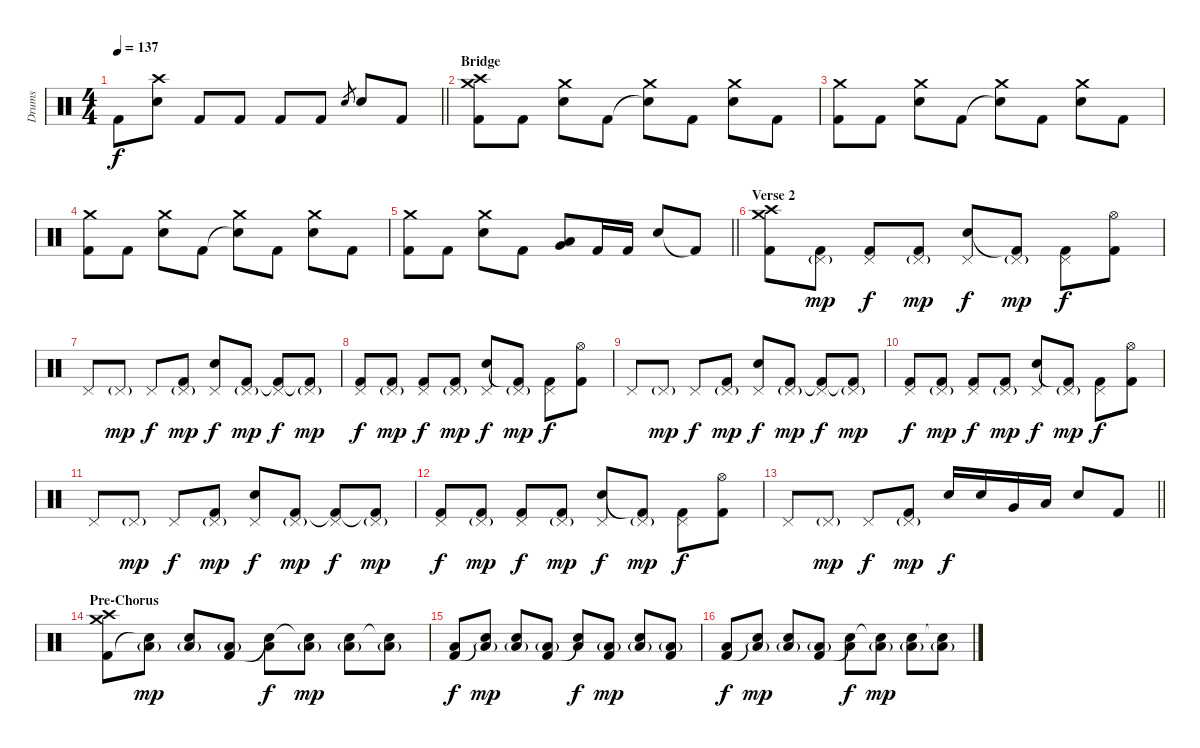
\track ("Drums" "Drums") {instrument percussion}
\staff {score}
\articulation defaults
\ts (4 4)
\tempo 137
\clef neutral
\barLineRight lightlight
\ks c "Kick (hit) 2".8{dy f}
("Electric Snare (hit)" "Crash high (hit)").8 "Kick (hit) 2".8 "Kick (hit) 2".8 "Kick (hit) 2".8 "Kick (hit) 2".8 "Electric Snare (hit)".8{gr} "Electric Snare (hit)".8 "Kick (hit) 2".8 |
\section ("" "Bridge")
("Kick (hit) 2" "Crash medium (hit)" "Crash high (hit)").8 "Kick (hit) 2".8 ("Electric Snare (hit)" "Crash medium (hit)").8 "Kick (hit) 2".8 ("Snare (hit)"{t} "Crash medium (hit)").8 "Kick (hit) 2".8 ("Electric Snare (hit)" "Crash medium (hit)").8 "Kick (hit) 2".8 |
("Kick (hit) 2" "Crash medium (hit)").8 "Kick (hit) 2".8 ("Electric Snare (hit)" "Crash medium (hit)").8 "Kick (hit) 2".8 ("Snare (hit)"{t} "Crash medium (hit)").8 "Kick (hit) 2".8 ("Electric Snare (hit)" "Crash medium (hit)").8 "Kick (hit) 2".8 |
("Kick (hit) 2" "Crash medium (hit)").8 "Kick (hit) 2".8 ("Electric Snare (hit)" "Crash medium (hit)").8 "Kick (hit) 2".8 ("Snare (hit)"{t} "Crash medium (hit)").8 "Kick (hit) 2".8 ("Electric Snare (hit)" "Crash medium (hit)").8 "Kick (hit) 2".8 |
\barLineRight lightlight
("Kick (hit) 2" "Crash medium (hit)").8 "Kick (hit) 2".8 ("Electric Snare (hit)" "Crash medium (hit)").8 "Kick (hit) 2".8 ("Low Tom (hit)" "Very Low Tom (hit)").8 "Kick (hit) 2".16 "Kick (hit) 2".16 "Electric Snare (hit)".8 "Kick (hit) 2"{t}.8 |
\section ("" "Verse 2")
("Kick (hit) 2" "Crash medium (hit)" "Crash high (hit)").8 ("Kick (hit) 2" "Pedal Hi-Hat (hit)"{g}).8{dy mp} ("Kick (hit) 2" "Pedal Hi-Hat (hit)").8{dy f} ("Kick (hit) 2" "Pedal Hi-Hat (hit)"{g}).8{dy mp} ("Electric Snare (hit)" "Pedal Hi-Hat (hit)").8{dy f} ("Kick (hit) 2"{t} "Pedal Hi-Hat (hit)"{g}).8{dy mp} ("Kick (hit) 2" "Pedal Hi-Hat (hit)").8{dy f} ("Kick (hit) 2" "Hi-Hat (open)").8 |
"Pedal Hi-Hat (hit)".8 "Pedal Hi-Hat (hit)"{g}.8{dy mp} "Pedal Hi-Hat (hit)".8{dy f} ("Kick (hit) 2" "Pedal Hi-Hat (hit)"{g}).8{dy mp} ("Electric Snare (hit)" "Pedal Hi-Hat (hit)").8{dy f} ("Kick (hit) 2" "Pedal Hi-Hat (hit)"{g}).8{dy mp} ("Kick (hit) 2"{t} "Pedal Hi-Hat (hit)").8{dy f} ("Kick (hit) 2"{t} "Pedal Hi-Hat (hit)"{g}).8{dy mp} |
("Kick (hit) 2" "Pedal Hi-Hat (hit)").8{dy f} ("Kick (hit) 2" "Pedal Hi-Hat (hit)"{g}).8{dy mp} ("Kick (hit) 2" "Pedal Hi-Hat (hit)").8{dy f} ("Kick (hit) 2" "Pedal Hi-Hat (hit)"{g}).8{dy mp} ("Electric Snare (hit)" "Pedal Hi-Hat (hit)").8{dy f} ("Kick (hit) 2"{t} "Pedal Hi-Hat (hit)"{g}).8{dy mp} ("Kick (hit) 2" "Pedal Hi-Hat (hit)").8{dy f} ("Kick (hit) 2" "Hi-Hat (open)").8 |
"Pedal Hi-Hat (hit)".8 "Pedal Hi-Hat (hit)"{g}.8{dy mp} "Pedal Hi-Hat (hit)".8{dy f} ("Kick (hit) 2" "Pedal Hi-Hat (hit)"{g}).8{dy mp} ("Electric Snare (hit)" "Pedal Hi-Hat (hit)").8{dy f} ("Kick (hit) 2" "Pedal Hi-Hat (hit)"{g}).8{dy mp} ("Kick (hit) 2"{t} "Pedal Hi-Hat (hit)").8{dy f} ("Kick (hit) 2"{t} "Pedal Hi-Hat (hit)"{g}).8{dy mp} |
("Kick (hit) 2" "Pedal Hi-Hat (hit)").8{dy f} ("Kick (hit) 2" "Pedal Hi-Hat (hit)"{g}).8{dy mp} ("Kick (hit) 2" "Pedal Hi-Hat (hit)").8{dy f} ("Kick (hit) 2" "Pedal Hi-Hat (hit)"{g}).8{dy mp} ("Electric Snare (hit)" "Pedal Hi-Hat (hit)").8{dy f} ("Kick (hit) 2"{t} "Pedal Hi-Hat (hit)"{g}).8{dy mp} ("Kick (hit) 2" "Pedal Hi-Hat (hit)").8{dy f} ("Kick (hit) 2" "Hi-Hat (open)").8 |
"Pedal Hi-Hat (hit)".8 "Pedal Hi-Hat (hit)"{g}.8{dy mp} "Pedal Hi-Hat (hit)".8{dy f} ("Kick (hit) 2" "Pedal Hi-Hat (hit)"{g}).8{dy mp} ("Electric Snare (hit)" "Pedal Hi-Hat (hit)").8{dy f} ("Kick (hit) 2" "Pedal Hi-Hat (hit)"{g}).8{dy mp} ("Kick (hit) 2"{t} "Pedal Hi-Hat (hit)").8{dy f} ("Kick (hit) 2"{t} "Pedal Hi-Hat (hit)"{g}).8{dy mp} |
("Kick (hit) 2" "Pedal Hi-Hat (hit)").8{dy f} ("Kick (hit) 2" "Pedal Hi-Hat (hit)"{g}).8{dy mp} ("Kick (hit) 2" "Pedal Hi-Hat (hit)").8{dy f} ("Kick (hit) 2" "Pedal Hi-Hat (hit)"{g}).8{dy mp} ("Electric Snare (hit)" "Pedal Hi-Hat (hit)").8{dy f} ("Kick (hit) 2"{t} "Pedal Hi-Hat (hit)"{g}).8{dy mp} ("Kick (hit) 2" "Pedal Hi-Hat (hit)").8{dy f} ("Kick (hit) 2" "Hi-Hat (open)").8 |
\barLineRight lightlight "Pedal Hi-Hat (hit)".8 "Pedal Hi-Hat (hit)"{g}.8{dy mp} "Pedal Hi-Hat (hit)".8{dy f}
("Kick (hit) 2" "Pedal Hi-Hat (hit)"{g}).8{dy mp} "Electric Snare (hit)".16{dy f} "Electric Snare (hit)".16 "Very Low Tom (hit)".16 "Low Floor Tom (hit)".16 "Electric Snare (hit)".8 "Kick (hit) 2".8 |
\section ("" "Pre-Chorus")
("Kick (hit) 2" "Crash medium (hit)" "Crash high (hit)").8 ("Snare (hit)"{t} "Low Floor Tom (hit)"{g}).8{dy mp} ("Electric Snare (hit)" "Low Floor Tom (hit)"{g}).8 ("Kick (hit) 2" "Low Floor Tom (hit)"{g}).8 ("Snare (hit)"{t} "Low Floor Tom (hit)").8{dy f} ("Snare (hit)"{t} "Low Floor Tom (hit)"{g}).8{dy mp} ("Electric Snare (hit)" "Low Floor Tom (hit)"{g}).8 ("Electric Snare (hit)"{t} "Low Floor Tom (hit)"{g}).8 |
("Kick (hit) 2" "Low Floor Tom (hit)").8{dy f} ("Snare (hit)"{t} "Low Floor Tom (hit)"{g}).8{dy mp} ("Electric Snare (hit)" "Low Floor Tom (hit)"{g}).8 ("Kick (hit) 2" "Low Floor Tom (hit)"{g}).8 ("Snare (hit)"{t} "Low Floor Tom (hit)").8{dy f} ("Kick (hit) 2" "Low Floor Tom (hit)"{g}).8{dy mp} ("Electric Snare (hit)" "Low Floor Tom (hit)"{g}).8 ("Kick (hit) 2" "Low Floor Tom (hit)"{g}).8 |
("Kick (hit) 2" "Low Floor Tom (hit)").8{dy f} ("Snare (hit)"{t} "Low Floor Tom (hit)"{g}).8{dy mp} ("Electric Snare (hit)" "Low Floor Tom (hit)"{g}).8 ("Kick (hit) 2" "Low Floor Tom (hit)"{g}).8 ("Snare (hit)"{t} "Low Floor Tom (hit)").8{dy f} ("Snare (hit)"{t} "Low Floor Tom (hit)"{g}).8{dy mp} ("Electric Snare (hit)" "Low Floor Tom (hit)"{g}).8 ("Electric Snare (hit)"{t} "Low Floor Tom (hit)"{g}).8
